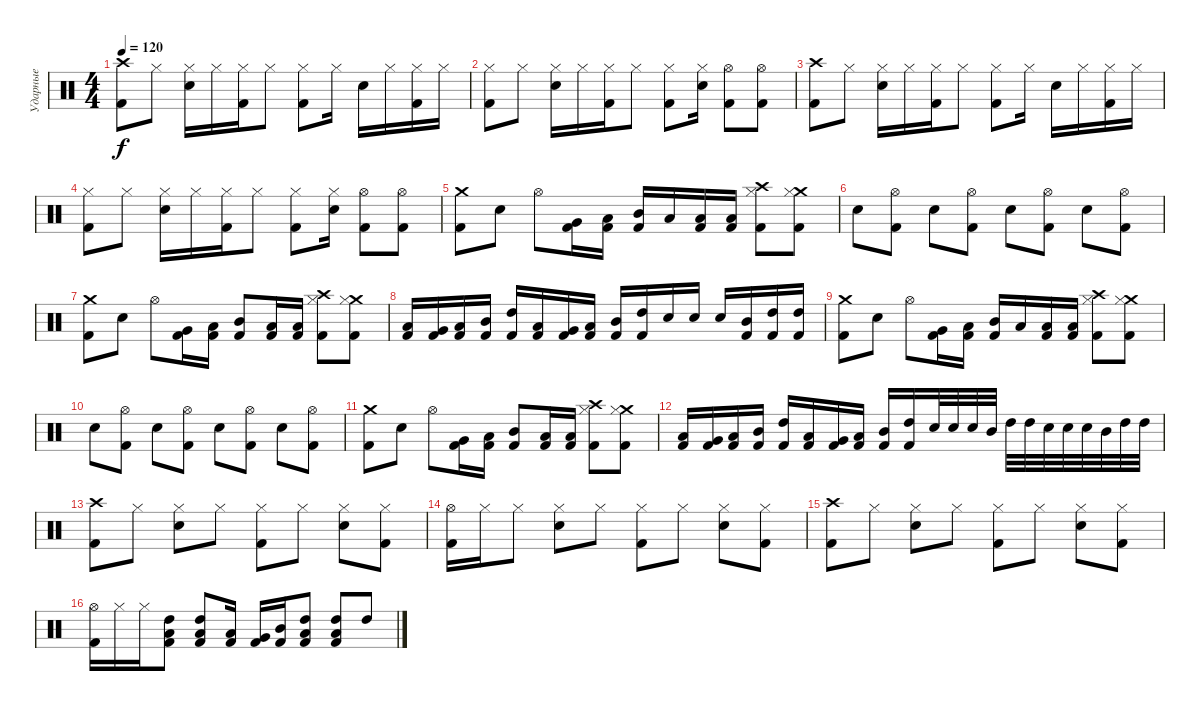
\track ("Ударные" "Ударные") {instrument percussion}
\staff {score}
\articulation defaults
\ts (4 4)
\tempo 120
\clef neutral
\ks c
("Crash high (hit)" "Kick (hit) 2").8{dy f} "Hi-Hat (closed)".8 ("Hi-Hat (closed)" "Snare (hit) 2").16 "Hi-Hat (closed)".16 ("Hi-Hat (closed)" "Kick (hit) 2").16 "Hi-Hat (closed)".8 ("Hi-Hat (closed)" "Kick (hit) 2").8 "Hi-Hat (closed)".16 "Snare (hit) 2".16 "Hi-Hat (closed)".16 ("Hi-Hat (closed)" "Kick (hit) 2").16 "Hi-Hat (closed)".16 |
("Hi-Hat (closed)" "Kick (hit) 2").8 "Hi-Hat (closed)".8 ("Hi-Hat (closed)" "Snare (hit) 2").16 "Hi-Hat (closed)".16 ("Hi-Hat (closed)" "Kick (hit) 2").16 "Hi-Hat (closed)".8 ("Hi-Hat (closed)" "Kick (hit) 2").8 ("Hi-Hat (closed)" "Snare (hit) 2").16 ("Hi-Hat (open)" "Kick (hit) 2").8 ("Hi-Hat (open)" "Kick (hit) 2").8 |
("Crash high (hit)" "Kick (hit) 2").8 "Hi-Hat (closed)".8 ("Hi-Hat (closed)" "Snare (hit) 2").16 "Hi-Hat (closed)".16 ("Hi-Hat (closed)" "Kick (hit) 2").16 "Hi-Hat (closed)".8 ("Hi-Hat (closed)" "Kick (hit) 2").8 "Hi-Hat (closed)".16 "Snare (hit) 2".16 "Hi-Hat (closed)".16 ("Hi-Hat (closed)" "Kick (hit) 2").16 "Hi-Hat (closed)".16 |
("Hi-Hat (closed)" "Kick (hit) 2").8 "Hi-Hat (closed)".8 ("Hi-Hat (closed)" "Snare (hit) 2").16 "Hi-Hat (closed)".16 ("Hi-Hat (closed)" "Kick (hit) 2").16 "Hi-Hat (closed)".8 ("Hi-Hat (closed)" "Kick (hit) 2").8 ("Hi-Hat (closed)" "Snare (hit) 2").16 ("Hi-Hat (open)" "Kick (hit) 2").8 ("Hi-Hat (open)" "Kick (hit) 2").8 |
("Crash medium (hit)" "Kick (hit) 2").8 "Snare (hit) 2".8 "Hi-Hat (open)".8 ("Very Low Tom (hit)" "Kick (hit) 2").16 ("Low Tom (hit)" "Kick (hit) 2").16 ("Mid Tom (hit)" "Kick (hit) 2").16 "Low Tom (hit)".16 ("Low Tom (hit)" "Kick (hit) 2").16 ("Low Tom (hit)" "Kick (hit) 2").16 ("Crash high (hit)" "Hi-Hat (closed)" "Kick (hit) 2").8 ("Crash medium (hit)" "Hi-Hat (closed)" "Kick (hit) 2").8 |
"Snare (hit) 2".8 ("Hi-Hat (open)" "Kick (hit) 2").8 "Snare (hit) 2".8 ("Hi-Hat (open)" "Kick (hit) 2").8 "Snare (hit) 2".8 ("Hi-Hat (open)" "Kick (hit) 2").8 "Snare (hit) 2".8 ("Hi-Hat (open)" "Kick (hit) 2").8 |
("Crash medium (hit)" "Kick (hit) 2").8 "Snare (hit) 2".8 "Hi-Hat (open)".8 ("Very Low Tom (hit)" "Kick (hit) 2").16 ("Low Tom (hit)" "Kick (hit) 2").16 ("Mid Tom (hit)" "Kick (hit) 2").8 ("Low Tom (hit)" "Kick (hit) 2").16 ("Low Tom (hit)" "Kick (hit) 2").16 ("Crash high (hit)" "Hi-Hat (closed)" "Kick (hit) 2").8 ("Crash medium (hit)" "Hi-Hat (closed)" "Kick (hit) 2").8 |
("Low Floor Tom (hit)" "Kick (hit) 2").16 ("Very Low Tom (hit)" "Kick (hit) 2").16 ("Low Tom (hit)" "Kick (hit) 2").16 ("Mid Tom (hit)" "Kick (hit) 2").16 ("High Tom (hit)" "Kick (hit) 2").16 ("Low Floor Tom (hit)" "Kick (hit) 2").16 ("Very Low Tom (hit)" "Kick (hit) 2").16 ("Low Tom (hit)" "Kick (hit) 2").16 ("Mid Tom (hit)" "Kick (hit) 2").16 ("High Tom (hit)" "Kick (hit) 2").16 "Snare (hit) 2".16 "Snare (hit) 2".16 "Snare (hit) 2".16 ("Mid Tom (hit)" "Kick (hit) 2").16 ("High Tom (hit)" "Kick (hit) 2").16 ("High Tom (hit)" "Kick (hit) 2").16 |
("Crash medium (hit)" "Kick (hit) 2").8 "Snare (hit) 2".8 "Hi-Hat (open)".8 ("Very Low Tom (hit)" "Kick (hit) 2").16 ("Low Tom (hit)" "Kick (hit) 2").16 ("Mid Tom (hit)" "Kick (hit) 2").16 "Low Tom (hit)".16 ("Low Tom (hit)" "Kick (hit) 2").16 ("Low Tom (hit)" "Kick (hit) 2").16 ("Crash high (hit)" "Hi-Hat (closed)" "Kick (hit) 2").8 ("Crash medium (hit)" "Hi-Hat (closed)" "Kick (hit) 2").8 |
"Snare (hit) 2".8 ("Hi-Hat (open)" "Kick (hit) 2").8 "Snare (hit) 2".8 ("Hi-Hat (open)" "Kick (hit) 2").8 "Snare (hit) 2".8 ("Hi-Hat (open)" "Kick (hit) 2").8 "Snare (hit) 2".8 ("Hi-Hat (open)" "Kick (hit) 2").8 |
("Crash medium (hit)" "Kick (hit) 2").8 "Snare (hit) 2".8 "Hi-Hat (open)".8 ("Very Low Tom (hit)" "Kick (hit) 2").16 ("Low Tom (hit)" "Kick (hit) 2").16 ("Mid Tom (hit)" "Kick (hit) 2").8 ("Low Tom (hit)" "Kick (hit) 2").16 ("Low Tom (hit)" "Kick (hit) 2").16 ("Crash high (hit)" "Hi-Hat (closed)" "Kick (hit) 2").8 ("Crash medium (hit)" "Hi-Hat (closed)" "Kick (hit) 2").8 |
("Low Floor Tom (hit)" "Kick (hit) 2").16 ("Very Low Tom (hit)" "Kick (hit) 2").16 ("Low Tom (hit)" "Kick (hit) 2").16 ("Mid Tom (hit)" "Kick (hit) 2").16 ("High Tom (hit)" "Kick (hit) 2").16 ("Low Floor Tom (hit)" "Kick (hit) 2").16 ("Very Low Tom (hit)" "Kick (hit) 2").16 ("Low Tom (hit)" "Kick (hit) 2").16 ("Mid Tom (hit)" "Kick (hit) 2").16 ("High Tom (hit)" "Kick (hit) 2").16 "Snare (hit) 2".32 "Snare (hit) 2".32 "Snare (hit) 2".32 "Mid Tom (hit)".32 "High Tom (hit)".32 "High Tom (hit)".32 "Snare (hit) 2".32 "Snare (hit) 2".32 "Snare (hit) 2".32 "Mid Tom (hit)".32 "High Tom (hit)".32 "High Tom (hit)".32 |
("Crash high (hit)" "Kick (hit) 2").8 "Hi-Hat (closed)".8 ("Hi-Hat (closed)" "Snare (hit) 2").8 "Hi-Hat (closed)".8 ("Hi-Hat (closed)" "Kick (hit) 2").8 "Hi-Hat (closed)".8 ("Hi-Hat (closed)" "Snare (hit) 2").8 ("Hi-Hat (closed)" "Kick (hit) 2").8 |
("Hi-Hat (open)" "Kick (hit) 2").16 "Hi-Hat (closed)".16 "Hi-Hat (closed)".8 ("Hi-Hat (closed)" "Snare (hit) 2").8 "Hi-Hat (closed)".8 ("Hi-Hat (closed)" "Kick (hit) 2").8 "Hi-Hat (closed)".8 ("Hi-Hat (closed)" "Snare (hit) 2").8 ("Hi-Hat (closed)" "Kick (hit) 2").8 |
("Crash high (hit)" "Kick (hit) 2").8 "Hi-Hat (closed)".8 ("Hi-Hat (closed)" "Snare (hit) 2").8 "Hi-Hat (closed)".8 ("Hi-Hat (closed)" "Kick (hit) 2").8 "Hi-Hat (closed)".8 ("Hi-Hat (closed)" "Snare (hit) 2").8 ("Hi-Hat (closed)" "Kick (hit) 2").8 |
("Hi-Hat (open)" "Kick (hit) 2").16 "Hi-Hat (closed)".16 "Hi-Hat (closed)".16 ("High Tom (hit)" "Low Tom (hit)" "Kick (hit) 2").8 ("High Tom (hit)" "Low Tom (hit)" "Kick (hit) 2").8 ("Low Tom (hit)" "Kick (hit) 2").16 ("Very Low Tom (hit)" "Kick (hit) 2").16 ("Mid Tom (hit)" "Kick (hit) 2").16 ("High Tom (hit)" "Low Tom (hit)" "Kick (hit) 2").8 ("High Tom (hit)" "Low Tom (hit)" "Kick (hit) 2").8 "High Tom (hit)".8
